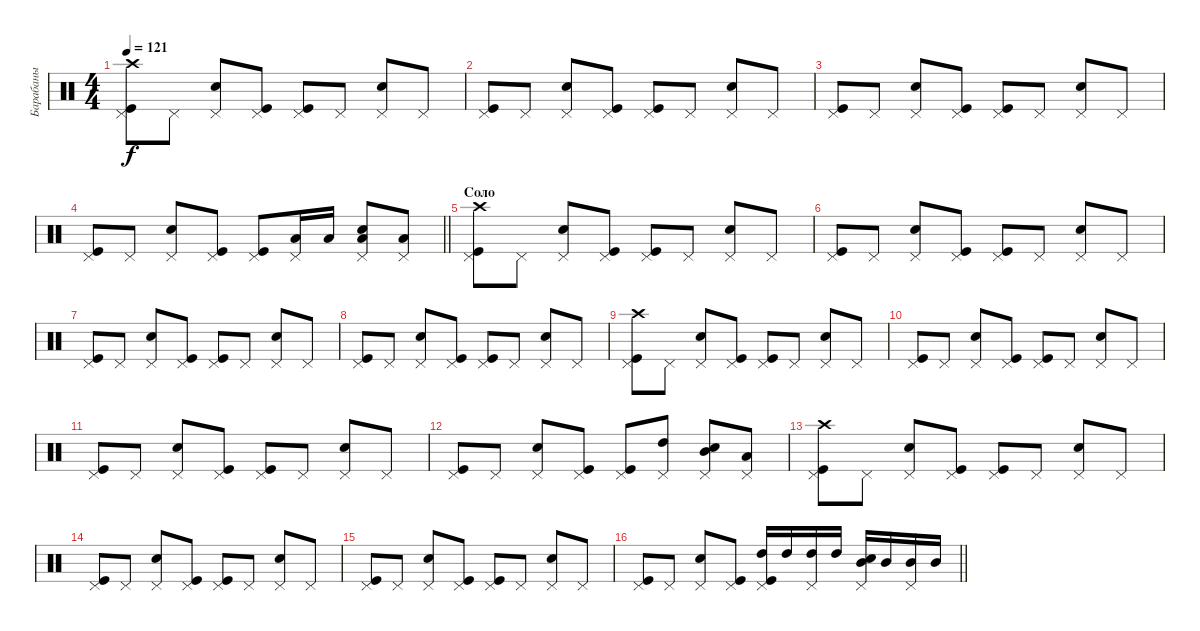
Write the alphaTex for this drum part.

\track ("Барабаны" "Барабаны") {instrument percussion}
\staff {score}
\articulation defaults
\ts (4 4)
\tempo 121
\clef neutral
\ks c
("Kick (hit)" "Pedal Hi-Hat (hit)" "Crash high (hit)").8{dy f} "Pedal Hi-Hat (hit)".8 ("Snare (hit) 2" "Pedal Hi-Hat (hit)").8 ("Kick (hit)" "Pedal Hi-Hat (hit)").8 ("Kick (hit)" "Pedal Hi-Hat (hit)").8 "Pedal Hi-Hat (hit)".8 ("Snare (hit) 2" "Pedal Hi-Hat (hit)").8 "Pedal Hi-Hat (hit)".8 |
("Kick (hit)" "Pedal Hi-Hat (hit)").8 "Pedal Hi-Hat (hit)".8 ("Snare (hit) 2" "Pedal Hi-Hat (hit)").8 ("Kick (hit)" "Pedal Hi-Hat (hit)").8 ("Kick (hit)" "Pedal Hi-Hat (hit)").8 "Pedal Hi-Hat (hit)".8 ("Snare (hit) 2" "Pedal Hi-Hat (hit)").8 "Pedal Hi-Hat (hit)".8 |
("Kick (hit)" "Pedal Hi-Hat (hit)").8 "Pedal Hi-Hat (hit)".8 ("Snare (hit) 2" "Pedal Hi-Hat (hit)").8 ("Kick (hit)" "Pedal Hi-Hat (hit)").8 ("Kick (hit)" "Pedal Hi-Hat (hit)").8 "Pedal Hi-Hat (hit)".8 ("Snare (hit) 2" "Pedal Hi-Hat (hit)").8 "Pedal Hi-Hat (hit)".8 |
\barLineRight lightlight
("Kick (hit)" "Pedal Hi-Hat (hit)").8 "Pedal Hi-Hat (hit)".8 ("Snare (hit) 2" "Pedal Hi-Hat (hit)").8 ("Kick (hit)" "Pedal Hi-Hat (hit)").8 ("Kick (hit)" "Pedal Hi-Hat (hit)").8 ("Pedal Hi-Hat (hit)" "Low Tom (hit)").16 "Low Tom (hit)".16 ("Snare (hit) 2" "Pedal Hi-Hat (hit)" "Low Tom (hit)").8 ("Pedal Hi-Hat (hit)" "Low Tom (hit)").8 |
\section ("" "Соло")
("Kick (hit)" "Pedal Hi-Hat (hit)" "Crash high (hit)").8 "Pedal Hi-Hat (hit)".8 ("Snare (hit) 2" "Pedal Hi-Hat (hit)").8 ("Kick (hit)" "Pedal Hi-Hat (hit)").8 ("Kick (hit)" "Pedal Hi-Hat (hit)").8 "Pedal Hi-Hat (hit)".8 ("Snare (hit) 2" "Pedal Hi-Hat (hit)").8 "Pedal Hi-Hat (hit)".8 |
("Kick (hit)" "Pedal Hi-Hat (hit)").8 "Pedal Hi-Hat (hit)".8 ("Snare (hit) 2" "Pedal Hi-Hat (hit)").8 ("Kick (hit)" "Pedal Hi-Hat (hit)").8 ("Kick (hit)" "Pedal Hi-Hat (hit)").8 "Pedal Hi-Hat (hit)".8 ("Snare (hit) 2" "Pedal Hi-Hat (hit)").8 "Pedal Hi-Hat (hit)".8 |
("Kick (hit)" "Pedal Hi-Hat (hit)").8 "Pedal Hi-Hat (hit)".8 ("Snare (hit) 2" "Pedal Hi-Hat (hit)").8 ("Kick (hit)" "Pedal Hi-Hat (hit)").8 ("Kick (hit)" "Pedal Hi-Hat (hit)").8 "Pedal Hi-Hat (hit)".8 ("Snare (hit) 2" "Pedal Hi-Hat (hit)").8 "Pedal Hi-Hat (hit)".8 |
("Kick (hit)" "Pedal Hi-Hat (hit)").8 "Pedal Hi-Hat (hit)".8 ("Snare (hit) 2" "Pedal Hi-Hat (hit)").8 ("Kick (hit)" "Pedal Hi-Hat (hit)").8 ("Kick (hit)" "Pedal Hi-Hat (hit)").8 "Pedal Hi-Hat (hit)".8 ("Snare (hit) 2" "Pedal Hi-Hat (hit)").8 "Pedal Hi-Hat (hit)".8 |
("Kick (hit)" "Pedal Hi-Hat (hit)" "Crash high (hit)").8 "Pedal Hi-Hat (hit)".8 ("Snare (hit) 2" "Pedal Hi-Hat (hit)").8 ("Kick (hit)" "Pedal Hi-Hat (hit)").8 ("Kick (hit)" "Pedal Hi-Hat (hit)").8 "Pedal Hi-Hat (hit)".8 ("Snare (hit) 2" "Pedal Hi-Hat (hit)").8 "Pedal Hi-Hat (hit)".8 |
("Kick (hit)" "Pedal Hi-Hat (hit)").8 "Pedal Hi-Hat (hit)".8 ("Snare (hit) 2" "Pedal Hi-Hat (hit)").8 ("Kick (hit)" "Pedal Hi-Hat (hit)").8 ("Kick (hit)" "Pedal Hi-Hat (hit)").8 "Pedal Hi-Hat (hit)".8 ("Snare (hit) 2" "Pedal Hi-Hat (hit)").8 "Pedal Hi-Hat (hit)".8 |
("Kick (hit)" "Pedal Hi-Hat (hit)").8 "Pedal Hi-Hat (hit)".8 ("Snare (hit) 2" "Pedal Hi-Hat (hit)").8 ("Kick (hit)" "Pedal Hi-Hat (hit)").8 ("Kick (hit)" "Pedal Hi-Hat (hit)").8 "Pedal Hi-Hat (hit)".8 ("Snare (hit) 2" "Pedal Hi-Hat (hit)").8 "Pedal Hi-Hat (hit)".8 |
("Kick (hit)" "Pedal Hi-Hat (hit)").8 "Pedal Hi-Hat (hit)".8 ("Snare (hit) 2" "Pedal Hi-Hat (hit)").8 ("Kick (hit)" "Pedal Hi-Hat (hit)").8 ("Kick (hit)" "Pedal Hi-Hat (hit)").8 ("Pedal Hi-Hat (hit)" "High Tom (hit)").8 ("Snare (hit) 2" "Pedal Hi-Hat (hit)" "Mid Tom (hit)").8 ("Pedal Hi-Hat (hit)" "Low Floor Tom (hit)").8 |
("Kick (hit)" "Pedal Hi-Hat (hit)" "Crash high (hit)").8 "Pedal Hi-Hat (hit)".8 ("Snare (hit) 2" "Pedal Hi-Hat (hit)").8 ("Kick (hit)" "Pedal Hi-Hat (hit)").8 ("Kick (hit)" "Pedal Hi-Hat (hit)").8 "Pedal Hi-Hat (hit)".8 ("Snare (hit) 2" "Pedal Hi-Hat (hit)").8 "Pedal Hi-Hat (hit)".8 |
("Kick (hit)" "Pedal Hi-Hat (hit)").8 "Pedal Hi-Hat (hit)".8 ("Snare (hit) 2" "Pedal Hi-Hat (hit)").8 ("Kick (hit)" "Pedal Hi-Hat (hit)").8 ("Kick (hit)" "Pedal Hi-Hat (hit)").8 "Pedal Hi-Hat (hit)".8 ("Snare (hit) 2" "Pedal Hi-Hat (hit)").8 "Pedal Hi-Hat (hit)".8 |
("Kick (hit)" "Pedal Hi-Hat (hit)").8 "Pedal Hi-Hat (hit)".8 ("Snare (hit) 2" "Pedal Hi-Hat (hit)").8 ("Kick (hit)" "Pedal Hi-Hat (hit)").8 ("Kick (hit)" "Pedal Hi-Hat (hit)").8 "Pedal Hi-Hat (hit)".8 ("Snare (hit) 2" "Pedal Hi-Hat (hit)").8 "Pedal Hi-Hat (hit)".8 |
\barLineRight lightlight
("Kick (hit)" "Pedal Hi-Hat (hit)").8 "Pedal Hi-Hat (hit)".8 ("Snare (hit) 2" "Pedal Hi-Hat (hit)").8 ("Kick (hit)" "Pedal Hi-Hat (hit)").8 ("Kick (hit)" "Pedal Hi-Hat (hit)" "High Tom (hit)").16 "High Tom (hit)".16 ("Pedal Hi-Hat (hit)" "High Tom (hit)").16 "High Tom (hit)".16 ("Snare (hit) 2" "Pedal Hi-Hat (hit)" "Mid Tom (hit)").16 "Mid Tom (hit)".16 ("Pedal Hi-Hat (hit)" "Mid Tom (hit)").16 "Mid Tom (hit)".16
